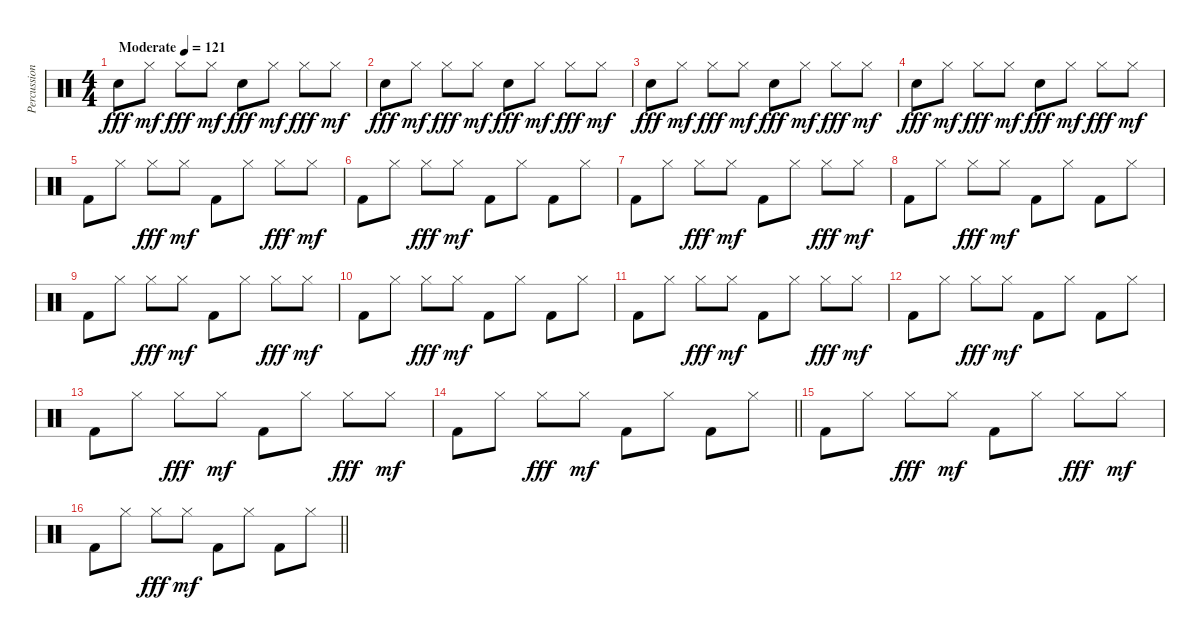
\track ("Percussion" "Percussion") {instrument percussion}
\staff {score}
\articulation defaults
\ts (4 4)
\tempo (121 "Moderate")
\clef neutral
\ks c "Electric Snare (hit)".8{dy fff} "Hi-Hat (closed)".8{dy mf} "Hi-Hat (closed)".8{dy fff} "Hi-Hat (closed)".8{dy mf} "Electric Snare (hit)".8{dy fff} "Hi-Hat (closed)".8{dy mf} "Hi-Hat (closed)".8{dy fff} "Hi-Hat (closed)".8{dy mf}
|
"Electric Snare (hit)".8{dy fff} "Hi-Hat (closed)".8{dy mf} "Hi-Hat (closed)".8{dy fff} "Hi-Hat (closed)".8{dy mf} "Electric Snare (hit)".8{dy fff} "Hi-Hat (closed)".8{dy mf} "Hi-Hat (closed)".8{dy fff} "Hi-Hat (closed)".8{dy mf} |
"Electric Snare (hit)".8{dy fff} "Hi-Hat (closed)".8{dy mf} "Hi-Hat (closed)".8{dy fff} "Hi-Hat (closed)".8{dy mf} "Electric Snare (hit)".8{dy fff} "Hi-Hat (closed)".8{dy mf} "Hi-Hat (closed)".8{dy fff} "Hi-Hat (closed)".8{dy mf} |
"Electric Snare (hit)".8{dy fff} "Hi-Hat (closed)".8{dy mf} "Hi-Hat (closed)".8{dy fff} "Hi-Hat (closed)".8{dy mf} "Electric Snare (hit)".8{dy fff} "Hi-Hat (closed)".8{dy mf} "Hi-Hat (closed)".8{dy fff} "Hi-Hat (closed)".8{dy mf} |
"Kick (hit) 2".8 "Hi-Hat (closed)".8 "Hi-Hat (closed)".8{dy fff} "Hi-Hat (closed)".8{dy mf} "Kick (hit) 2".8 "Hi-Hat (closed)".8 "Hi-Hat (closed)".8{dy fff} "Hi-Hat (closed)".8{dy mf} |
"Kick (hit) 2".8 "Hi-Hat (closed)".8 "Hi-Hat (closed)".8{dy fff} "Hi-Hat (closed)".8{dy mf} "Kick (hit) 2".8 "Hi-Hat (closed)".8 "Kick (hit) 2".8 "Hi-Hat (closed)".8 |
"Kick (hit) 2".8 "Hi-Hat (closed)".8 "Hi-Hat (closed)".8{dy fff} "Hi-Hat (closed)".8{dy mf} "Kick (hit) 2".8 "Hi-Hat (closed)".8 "Hi-Hat (closed)".8{dy fff} "Hi-Hat (closed)".8{dy mf} |
"Kick (hit) 2".8 "Hi-Hat (closed)".8 "Hi-Hat (closed)".8{dy fff} "Hi-Hat (closed)".8{dy mf} "Kick (hit) 2".8 "Hi-Hat (closed)".8 "Kick (hit) 2".8 "Hi-Hat (closed)".8 |
"Kick (hit) 2".8 "Hi-Hat (closed)".8 "Hi-Hat (closed)".8{dy fff} "Hi-Hat (closed)".8{dy mf} "Kick (hit) 2".8 "Hi-Hat (closed)".8 "Hi-Hat (closed)".8{dy fff} "Hi-Hat (closed)".8{dy mf} |
"Kick (hit) 2".8 "Hi-Hat (closed)".8 "Hi-Hat (closed)".8{dy fff} "Hi-Hat (closed)".8{dy mf} "Kick (hit) 2".8 "Hi-Hat (closed)".8 "Kick (hit) 2".8 "Hi-Hat (closed)".8 |
"Kick (hit) 2".8 "Hi-Hat (closed)".8 "Hi-Hat (closed)".8{dy fff} "Hi-Hat (closed)".8{dy mf} "Kick (hit) 2".8 "Hi-Hat (closed)".8 "Hi-Hat (closed)".8{dy fff} "Hi-Hat (closed)".8{dy mf} |
"Kick (hit) 2".8 "Hi-Hat (closed)".8 "Hi-Hat (closed)".8{dy fff} "Hi-Hat (closed)".8{dy mf} "Kick (hit) 2".8 "Hi-Hat (closed)".8 "Kick (hit) 2".8 "Hi-Hat (closed)".8 |
"Kick (hit) 2".8 "Hi-Hat (closed)".8 "Hi-Hat (closed)".8{dy fff} "Hi-Hat (closed)".8{dy mf} "Kick (hit) 2".8 "Hi-Hat (closed)".8 "Hi-Hat (closed)".8{dy fff} "Hi-Hat (closed)".8{dy mf} |
\barLineRight lightlight "Kick (hit) 2".8 "Hi-Hat (closed)".8 "Hi-Hat (closed)".8{dy fff} "Hi-Hat (closed)".8{dy mf} "Kick (hit) 2".8 "Hi-Hat (closed)".8 "Kick (hit) 2".8 "Hi-Hat (closed)".8
|
"Kick (hit) 2".8 "Hi-Hat (closed)".8 "Hi-Hat (closed)".8{dy fff} "Hi-Hat (closed)".8{dy mf} "Kick (hit) 2".8 "Hi-Hat (closed)".8 "Hi-Hat (closed)".8{dy fff} "Hi-Hat (closed)".8{dy mf} |
\barLineRight lightlight "Kick (hit) 2".8 "Hi-Hat (closed)".8 "Hi-Hat (closed)".8{dy fff} "Hi-Hat (closed)".8{dy mf} "Kick (hit) 2".8 "Hi-Hat (closed)".8 "Kick (hit) 2".8 "Hi-Hat (closed)".8
